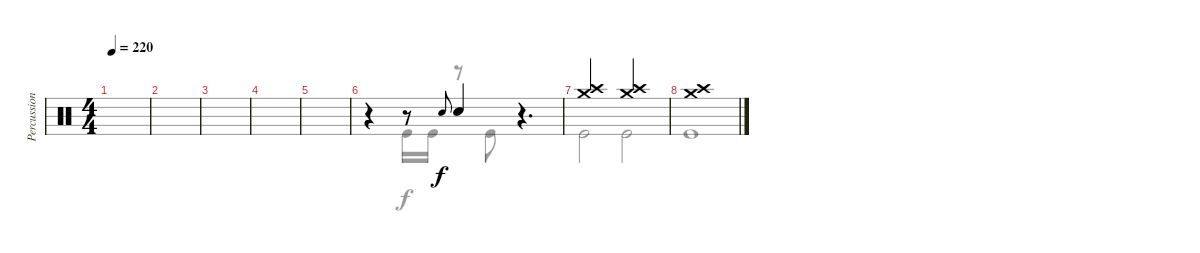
\track ("Percussion" "Percussion") {instrument percussion}
\staff {score}
\articulation defaults
\voice
\ts (4 4)
\tempo 220
\clef neutral
\ks c
|
|
|
|
|
r.4 r.8 "Electric Snare (hit)".8{gr onbeat} "Electric Snare (hit)".4 r.4{d} |
("Crash medium (hit)" "Crash high (hit)").2 ("Crash medium (hit)" "Crash high (hit)").2 |
("Crash medium (hit)" "Crash high (hit)").1
\voice
\clef neutral
\ottava regular
\simile none
\ks c
|
|
|
|
|
r.4 "Kick (hit)".16 "Kick (hit)".16 r.8 "Kick (hit)".8 r.4{d} |
"Kick (hit)".2 "Kick (hit)".2 |
"Kick (hit)".1
